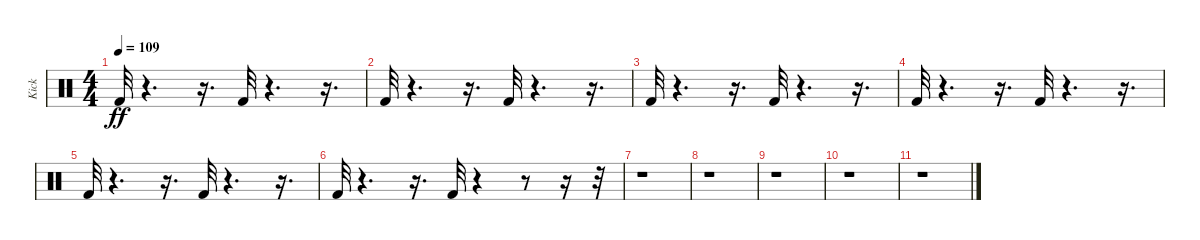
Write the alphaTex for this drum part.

\track ("Kick" "Kick") {instrument percussion}
\staff {score}
\articulation defaults
\ts (4 4)
\tempo 109
\clef neutral
\ks c "Kick (hit) 2".32{dy ff}
r.4{d} r.16{d} "Kick (hit) 2".32 r.4{d} r.16{d} |
"Kick (hit) 2".32 r.4{d} r.16{d} "Kick (hit) 2".32 r.4{d} r.16{d} |
"Kick (hit) 2".32 r.4{d} r.16{d} "Kick (hit) 2".32 r.4{d} r.16{d} |
"Kick (hit) 2".32 r.4{d} r.16{d} "Kick (hit) 2".32 r.4{d} r.16{d} |
"Kick (hit) 2".32 r.4{d} r.16{d} "Kick (hit) 2".32 r.4{d} r.16{d} |
"Kick (hit) 2".32 r.4{d} r.16{d} "Kick (hit) 2".32 r.4 r.8 r.16 r.32 |
r.1 |
r.1 |
r.1 |
r.1 |
r.1
